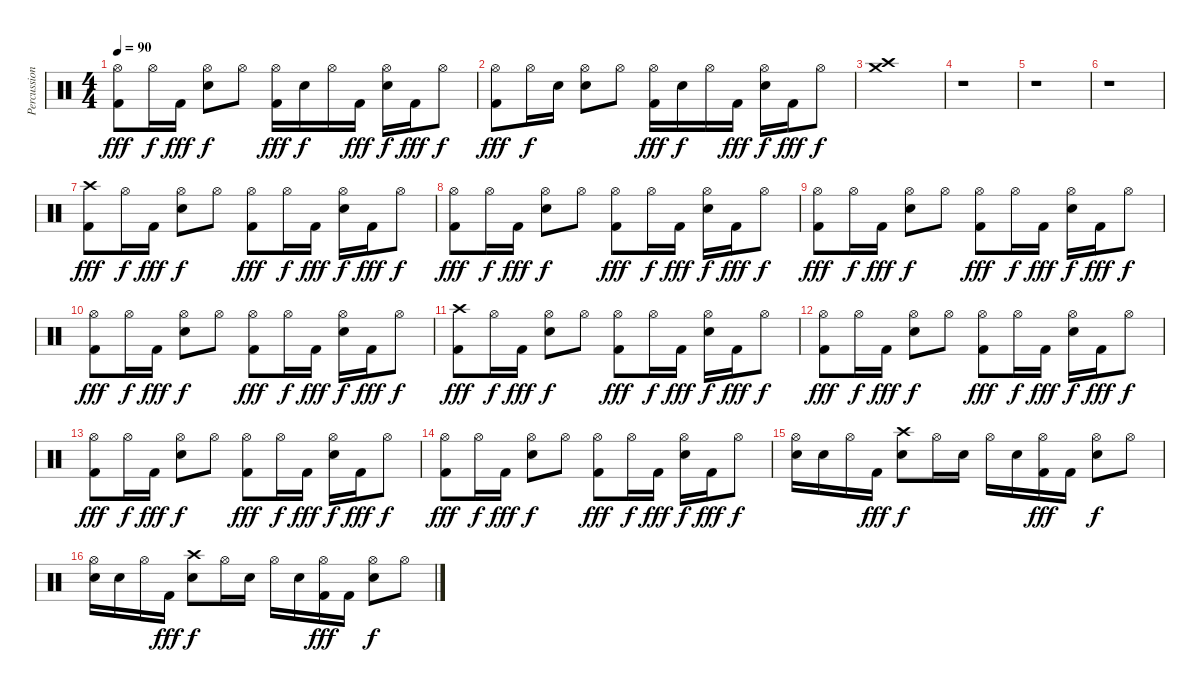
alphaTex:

\track ("Percussions" "Percussion") {instrument percussion}
\staff {score}
\articulation defaults
\ts (4 4)
\tempo 90
\clef neutral
\ks c
("Hi-Hat (open)" "Kick (hit) 2").8{dy fff} "Hi-Hat (open)".16{dy f} "Kick (hit) 2".16{dy fff} ("Hi-Hat (open)" "Snare (hit) 2").8{dy f} "Hi-Hat (open)".8 ("Hi-Hat (open)" "Kick (hit) 2").16{dy fff} "Snare (hit) 2".16{dy f} "Hi-Hat (open)".16 "Kick (hit) 2".16{dy fff} ("Hi-Hat (open)" "Snare (hit) 2").16{dy f} "Kick (hit) 2".16{dy fff} "Hi-Hat (open)".8{dy f} |
("Hi-Hat (open)" "Kick (hit) 2").8{dy fff} "Hi-Hat (open)".16{dy f} "Snare (hit) 2".16 ("Hi-Hat (open)" "Snare (hit) 2").8 "Hi-Hat (open)".8 ("Hi-Hat (open)" "Kick (hit) 2").16{dy fff} "Snare (hit) 2".16{dy f} "Hi-Hat (open)".16 "Kick (hit) 2".16{dy fff} ("Hi-Hat (open)" "Snare (hit) 2").16{dy f} "Kick (hit) 2".16{dy fff} "Hi-Hat (open)".8{dy f} |
("Crash high (hit)" "Crash medium (hit)").1 |
r.1 |
r.1 |
r.1 |
("Crash high (hit)" "Kick (hit) 2").8{dy fff} "Hi-Hat (open)".16{dy f} "Kick (hit) 2".16{dy fff} ("Hi-Hat (open)" "Snare (hit) 2").8{dy f} "Hi-Hat (open)".8 ("Hi-Hat (open)" "Kick (hit) 2").8{dy fff} "Hi-Hat (open)".16{dy f} "Kick (hit) 2".16{dy fff} ("Hi-Hat (open)" "Snare (hit) 2").16{dy f} "Kick (hit) 2".16{dy fff} "Hi-Hat (open)".8{dy f} |
("Hi-Hat (open)" "Kick (hit) 2").8{dy fff} "Hi-Hat (open)".16{dy f} "Kick (hit) 2".16{dy fff} ("Hi-Hat (open)" "Snare (hit) 2").8{dy f} "Hi-Hat (open)".8 ("Hi-Hat (open)" "Kick (hit) 2").8{dy fff} "Hi-Hat (open)".16{dy f} "Kick (hit) 2".16{dy fff} ("Hi-Hat (open)" "Snare (hit) 2").16{dy f} "Kick (hit) 2".16{dy fff} "Hi-Hat (open)".8{dy f} |
("Hi-Hat (open)" "Kick (hit) 2").8{dy fff} "Hi-Hat (open)".16{dy f} "Kick (hit) 2".16{dy fff} ("Hi-Hat (open)" "Snare (hit) 2").8{dy f} "Hi-Hat (open)".8 ("Hi-Hat (open)" "Kick (hit) 2").8{dy fff} "Hi-Hat (open)".16{dy f} "Kick (hit) 2".16{dy fff} ("Hi-Hat (open)" "Snare (hit) 2").16{dy f} "Kick (hit) 2".16{dy fff} "Hi-Hat (open)".8{dy f} |
("Hi-Hat (open)" "Kick (hit) 2").8{dy fff} "Hi-Hat (open)".16{dy f} "Kick (hit) 2".16{dy fff} ("Hi-Hat (open)" "Snare (hit) 2").8{dy f} "Hi-Hat (open)".8 ("Hi-Hat (open)" "Kick (hit) 2").8{dy fff} "Hi-Hat (open)".16{dy f} "Kick (hit) 2".16{dy fff} ("Hi-Hat (open)" "Snare (hit) 2").16{dy f} "Kick (hit) 2".16{dy fff} "Hi-Hat (open)".8{dy f} |
("Crash high (hit)" "Kick (hit) 2").8{dy fff} "Hi-Hat (open)".16{dy f} "Kick (hit) 2".16{dy fff} ("Hi-Hat (open)" "Snare (hit) 2").8{dy f} "Hi-Hat (open)".8 ("Hi-Hat (open)" "Kick (hit) 2").8{dy fff} "Hi-Hat (open)".16{dy f} "Kick (hit) 2".16{dy fff} ("Hi-Hat (open)" "Snare (hit) 2").16{dy f} "Kick (hit) 2".16{dy fff} "Hi-Hat (open)".8{dy f} |
("Hi-Hat (open)" "Kick (hit) 2").8{dy fff} "Hi-Hat (open)".16{dy f} "Kick (hit) 2".16{dy fff} ("Hi-Hat (open)" "Snare (hit) 2").8{dy f} "Hi-Hat (open)".8 ("Hi-Hat (open)" "Kick (hit) 2").8{dy fff} "Hi-Hat (open)".16{dy f} "Kick (hit) 2".16{dy fff} ("Hi-Hat (open)" "Snare (hit) 2").16{dy f} "Kick (hit) 2".16{dy fff} "Hi-Hat (open)".8{dy f} |
("Hi-Hat (open)" "Kick (hit) 2").8{dy fff} "Hi-Hat (open)".16{dy f} "Kick (hit) 2".16{dy fff} ("Hi-Hat (open)" "Snare (hit) 2").8{dy f} "Hi-Hat (open)".8 ("Hi-Hat (open)" "Kick (hit) 2").8{dy fff} "Hi-Hat (open)".16{dy f} "Kick (hit) 2".16{dy fff} ("Hi-Hat (open)" "Snare (hit) 2").16{dy f} "Kick (hit) 2".16{dy fff} "Hi-Hat (open)".8{dy f} |
("Hi-Hat (open)" "Kick (hit) 2").8{dy fff} "Hi-Hat (open)".16{dy f} "Kick (hit) 2".16{dy fff} ("Hi-Hat (open)" "Snare (hit) 2").8{dy f} "Hi-Hat (open)".8 ("Hi-Hat (open)" "Kick (hit) 2").8{dy fff} "Hi-Hat (open)".16{dy f} "Kick (hit) 2".16{dy fff} ("Hi-Hat (open)" "Snare (hit) 2").16{dy f} "Kick (hit) 2".16{dy fff} "Hi-Hat (open)".8{dy f} |
("Hi-Hat (open)" "Snare (hit) 2").16 "Snare (hit) 2".16 "Hi-Hat (open)".16 "Kick (hit) 2".16{dy fff} ("Crash high (hit)" "Snare (hit) 2").8{dy f} "Hi-Hat (open)".16 "Snare (hit) 2".16 "Hi-Hat (open)".16 "Snare (hit) 2".16 ("Hi-Hat (open)" "Kick (hit) 2").16{dy fff} "Kick (hit) 2".16 ("Hi-Hat (open)" "Snare (hit) 2").8{dy f} "Hi-Hat (open)".8 |
("Hi-Hat (open)" "Snare (hit) 2").16 "Snare (hit) 2".16 "Hi-Hat (open)".16 "Kick (hit) 2".16{dy fff} ("Crash high (hit)" "Snare (hit) 2").8{dy f} "Hi-Hat (open)".16 "Snare (hit) 2".16 "Hi-Hat (open)".16 "Snare (hit) 2".16 ("Hi-Hat (open)" "Kick (hit) 2").16{dy fff} "Kick (hit) 2".16 ("Hi-Hat (open)" "Snare (hit) 2").8{dy f} "Hi-Hat (open)".8
